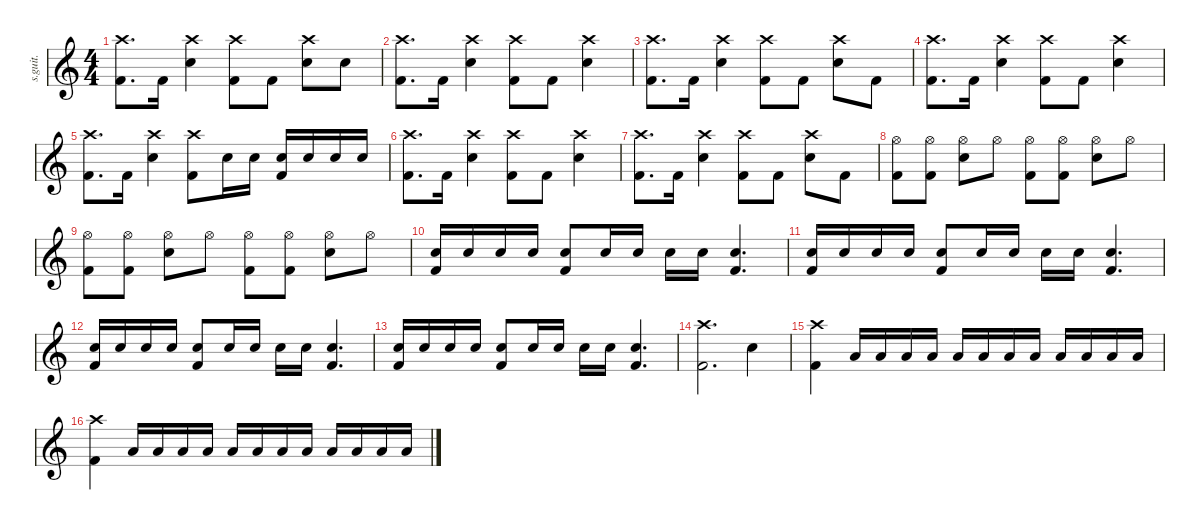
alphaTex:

\defaultSystemsLayout 4
\hideDynamics
\bracketExtendMode nobrackets
\track ("" "s.guit.") {instrument percussion}
\staff {score}
\articulation defaults
\ts (4 4)
\tempo (180 hide)
\clef g2
\ks c
("Kick (hit) 2" "Crash high (hit)").8{d dy f} "Kick (hit) 2".16 ("Snare (hit) 2" "Crash high (hit)").4 ("Kick (hit) 2" "Crash high (hit)").8 "Kick (hit) 2".8 ("Snare (hit) 2" "Crash high (hit)").8 "Snare (hit) 2".8 |
("Kick (hit) 2" "Crash high (hit)").8{d} "Kick (hit) 2".16 ("Snare (hit) 2" "Crash high (hit)").4 ("Kick (hit) 2" "Crash high (hit)").8 "Kick (hit) 2".8 ("Snare (hit) 2" "Crash high (hit)").4 |
("Kick (hit) 2" "Crash high (hit)").8{d} "Kick (hit) 2".16 ("Snare (hit) 2" "Crash high (hit)").4 ("Kick (hit) 2" "Crash high (hit)").8 "Kick (hit) 2".8 ("Snare (hit) 2" "Crash high (hit)").8 "Kick (hit) 2".8 |
("Kick (hit) 2" "Crash high (hit)").8{d} "Kick (hit) 2".16 ("Snare (hit) 2" "Crash high (hit)").4 ("Kick (hit) 2" "Crash high (hit)").8 "Kick (hit) 2".8 ("Snare (hit) 2" "Crash high (hit)").4 |
("Kick (hit) 2" "Crash high (hit)").8{d} "Kick (hit) 2".16 ("Snare (hit) 2" "Crash high (hit)").4 ("Kick (hit) 2" "Crash high (hit)").8 "Snare (hit) 2".16 "Snare (hit) 2".16 ("Kick (hit) 2" "Snare (hit) 2").16 "Snare (hit) 2".16 "Snare (hit) 2".16 "Snare (hit) 2".16 |
("Kick (hit) 2" "Crash high (hit)").8{d} "Kick (hit) 2".16 ("Snare (hit) 2" "Crash high (hit)").4 ("Kick (hit) 2" "Crash high (hit)").8 "Kick (hit) 2".8 ("Snare (hit) 2" "Crash high (hit)").4 |
("Kick (hit) 2" "Crash high (hit)").8{d} "Kick (hit) 2".16 ("Snare (hit) 2" "Crash high (hit)").4 ("Kick (hit) 2" "Crash high (hit)").8 "Kick (hit) 2".8 ("Snare (hit) 2" "Crash high (hit)").8 "Kick (hit) 2".8 |
("Kick (hit) 2" "Hi-Hat (open)").8 ("Kick (hit) 2" "Hi-Hat (open)").8 ("Snare (hit) 2" "Hi-Hat (open)").8 "Hi-Hat (open)".8 ("Kick (hit) 2" "Hi-Hat (open)").8 ("Kick (hit) 2" "Hi-Hat (open)").8 ("Snare (hit) 2" "Hi-Hat (open)").8 "Hi-Hat (open)".8 |
("Kick (hit) 2" "Hi-Hat (open)").8 ("Kick (hit) 2" "Hi-Hat (open)").8 ("Snare (hit) 2" "Hi-Hat (open)").8 "Hi-Hat (open)".8 ("Kick (hit) 2" "Hi-Hat (open)").8 ("Kick (hit) 2" "Hi-Hat (open)").8 ("Snare (hit) 2" "Hi-Hat (open)").8 "Hi-Hat (open)".8 |
("Kick (hit) 2" "Snare (hit) 2").16 "Snare (hit) 2".16 "Snare (hit) 2".16 "Snare (hit) 2".16 ("Kick (hit) 2" "Snare (hit) 2").8 "Snare (hit) 2".16 "Snare (hit) 2".16 "Snare (hit) 2".16 "Snare (hit) 2".16 ("Kick (hit) 2" "Snare (hit) 2").4{d} |
("Kick (hit) 2" "Snare (hit) 2").16 "Snare (hit) 2".16 "Snare (hit) 2".16 "Snare (hit) 2".16 ("Kick (hit) 2" "Snare (hit) 2").8 "Snare (hit) 2".16 "Snare (hit) 2".16 "Snare (hit) 2".16 "Snare (hit) 2".16 ("Kick (hit) 2" "Snare (hit) 2").4{d} |
("Kick (hit) 2" "Snare (hit) 2").16 "Snare (hit) 2".16 "Snare (hit) 2".16 "Snare (hit) 2".16 ("Kick (hit) 2" "Snare (hit) 2").8 "Snare (hit) 2".16 "Snare (hit) 2".16 "Snare (hit) 2".16 "Snare (hit) 2".16 ("Kick (hit) 2" "Snare (hit) 2").4{d} |
("Kick (hit) 2" "Snare (hit) 2").16 "Snare (hit) 2".16 "Snare (hit) 2".16 "Snare (hit) 2".16 ("Kick (hit) 2" "Snare (hit) 2").8 "Snare (hit) 2".16 "Snare (hit) 2".16 "Snare (hit) 2".16 "Snare (hit) 2".16 ("Kick (hit) 2" "Snare (hit) 2").4{d} |
("Kick (hit) 2" "Crash high (hit)").2{d} "Snare (hit) 2".4 |
("Kick (hit) 2" "Crash high (hit)").4 "Low Tom (hit)".16 "Low Tom (hit)".16 "Low Tom (hit)".16 "Low Tom (hit)".16 "Low Tom (hit)".16 "Low Tom (hit)".16 "Low Tom (hit)".16 "Low Tom (hit)".16 "Low Tom (hit)".16 "Low Tom (hit)".16 "Low Tom (hit)".16 "Low Tom (hit)".16 |
("Kick (hit) 2" "Crash high (hit)").4 "Low Tom (hit)".16 "Low Tom (hit)".16 "Low Tom (hit)".16 "Low Tom (hit)".16 "Low Tom (hit)".16 "Low Tom (hit)".16 "Low Tom (hit)".16 "Low Tom (hit)".16 "Low Tom (hit)".16 "Low Tom (hit)".16 "Low Tom (hit)".16 "Low Tom (hit)".16
